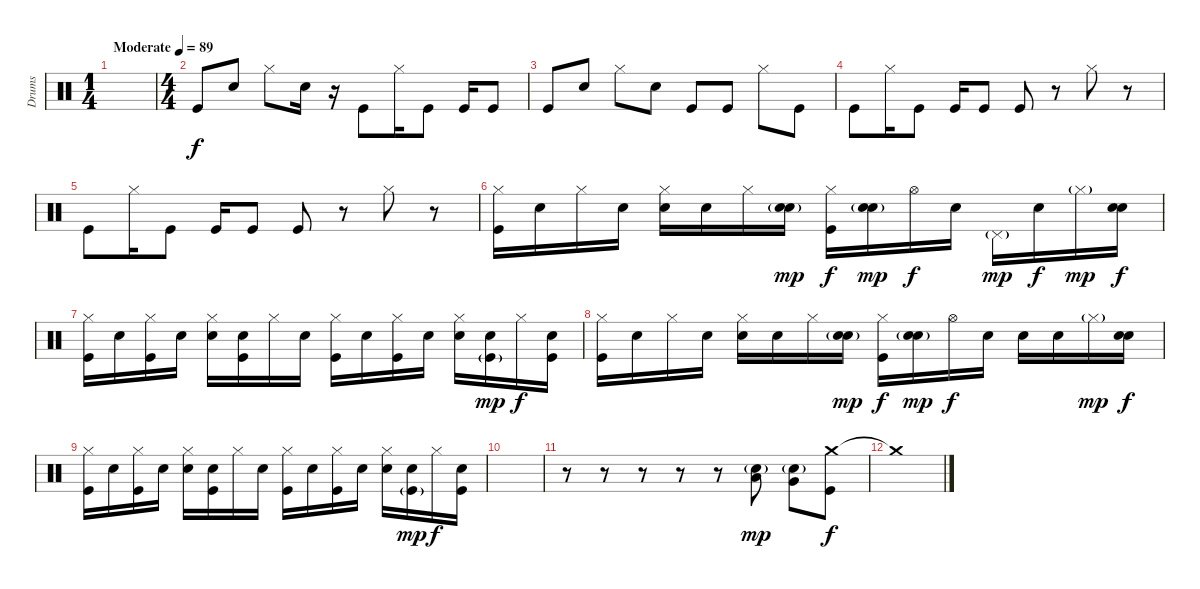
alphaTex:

\track ("Drums" "Drums") {instrument percussion}
\staff {score}
\articulation defaults
\ts (1 4)
\tempo (89 "Moderate")
\clef neutral
\ks c
|
\ts (4 4)
"Kick (hit)".8 "Snare (hit)".8 "Hi-Hat (closed)".8 "Snare (hit)".16 r.16 "Kick (hit)".8 "Hi-Hat (closed)".16 "Kick (hit)".8 "Kick (hit)".16 "Kick (hit)".8 |
"Kick (hit)".8 "Snare (hit)".8 "Hi-Hat (closed)".8 "Snare (hit)".8 "Kick (hit)".8 "Kick (hit)".8 "Hi-Hat (closed)".8 "Kick (hit)".8 |
"Kick (hit)".8 "Hi-Hat (closed)".16 "Kick (hit)".8 "Kick (hit)".16 "Kick (hit)".8 "Kick (hit)".8 r.8 "Hi-Hat (closed)".8 r.8 |
"Kick (hit)".8 "Hi-Hat (closed)".16 "Kick (hit)".8 "Kick (hit)".16 "Kick (hit)".8 "Kick (hit)".8 r.8 "Hi-Hat (closed)".8 r.8 |
("Hi-Hat (closed)" "Kick (hit)").16 "Snare (hit)".16 "Hi-Hat (closed)".16 "Snare (hit)".16 ("Hi-Hat (closed)" "Electric Snare (hit)").16 "Snare (hit)".16 "Hi-Hat (closed)".16 ("Snare (hit)" "Electric Snare (hit)"{g}).16{dy mp} ("Hi-Hat (closed)" "Kick (hit)").16{dy f} ("Snare (hit)" "Electric Snare (hit)"{g}).16{dy mp} "Hi-Hat (open)".16{dy f} "Snare (hit)".16 "Pedal Hi-Hat (hit)"{g}.16{dy mp} "Snare (hit)".16{dy f} "Hi-Hat (closed)"{g}.16{dy mp} ("Snare (hit)" "Electric Snare (hit)").16{dy f} |
("Hi-Hat (closed)" "Kick (hit)").16 "Snare (hit)".16 ("Hi-Hat (closed)" "Kick (hit)").16 "Snare (hit)".16 ("Hi-Hat (closed)" "Electric Snare (hit)").16 ("Snare (hit)" "Kick (hit)").16 "Hi-Hat (closed)".16 "Snare (hit)".16 ("Hi-Hat (closed)" "Kick (hit)").16 "Snare (hit)".16 ("Hi-Hat (closed)" "Kick (hit)").16 "Snare (hit)".16 ("Hi-Hat (closed)" "Electric Snare (hit)").16 ("Snare (hit)" "Kick (hit)"{g}).16{dy mp} "Hi-Hat (closed)".16{dy f} ("Snare (hit)" "Kick (hit)").16 |
("Hi-Hat (closed)" "Kick (hit)").16 "Snare (hit)".16 "Hi-Hat (closed)".16 "Snare (hit)".16 ("Hi-Hat (closed)" "Electric Snare (hit)").16 "Snare (hit)".16 "Hi-Hat (closed)".16 ("Snare (hit)" "Electric Snare (hit)"{g}).16{dy mp} ("Hi-Hat (closed)" "Kick (hit)").16{dy f} ("Snare (hit)" "Electric Snare (hit)"{g}).16{dy mp} "Hi-Hat (open)".16{dy f} "Snare (hit)".16 "Snare (hit)".16 "Snare (hit)".16 "Hi-Hat (closed)"{g}.16{dy mp} ("Snare (hit)" "Electric Snare (hit)").16{dy f} |
("Hi-Hat (closed)" "Kick (hit)").16 "Snare (hit)".16 ("Hi-Hat (closed)" "Kick (hit)").16 "Snare (hit)".16 ("Hi-Hat (closed)" "Electric Snare (hit)").16 ("Snare (hit)" "Kick (hit)").16 "Hi-Hat (closed)".16 "Snare (hit)".16 ("Hi-Hat (closed)" "Kick (hit)").16 "Snare (hit)".16 ("Hi-Hat (closed)" "Kick (hit)").16 "Snare (hit)".16 ("Hi-Hat (closed)" "Electric Snare (hit)").16 ("Snare (hit)" "Kick (hit)"{g}).16{dy mp} "Hi-Hat (closed)".16{dy f} ("Snare (hit)" "Kick (hit)").16 |
|
r.8 r.8 r.8 r.8 r.8 ("Electric Snare (hit)"{g} "Low Floor Tom (hit)").8{dy mp} ("Electric Snare (hit)"{g} "Very Low Tom (hit)").8 ("Crash medium (hit)" "Kick (hit)").8{dy f} |
"Crash medium (hit)"{t}.1
